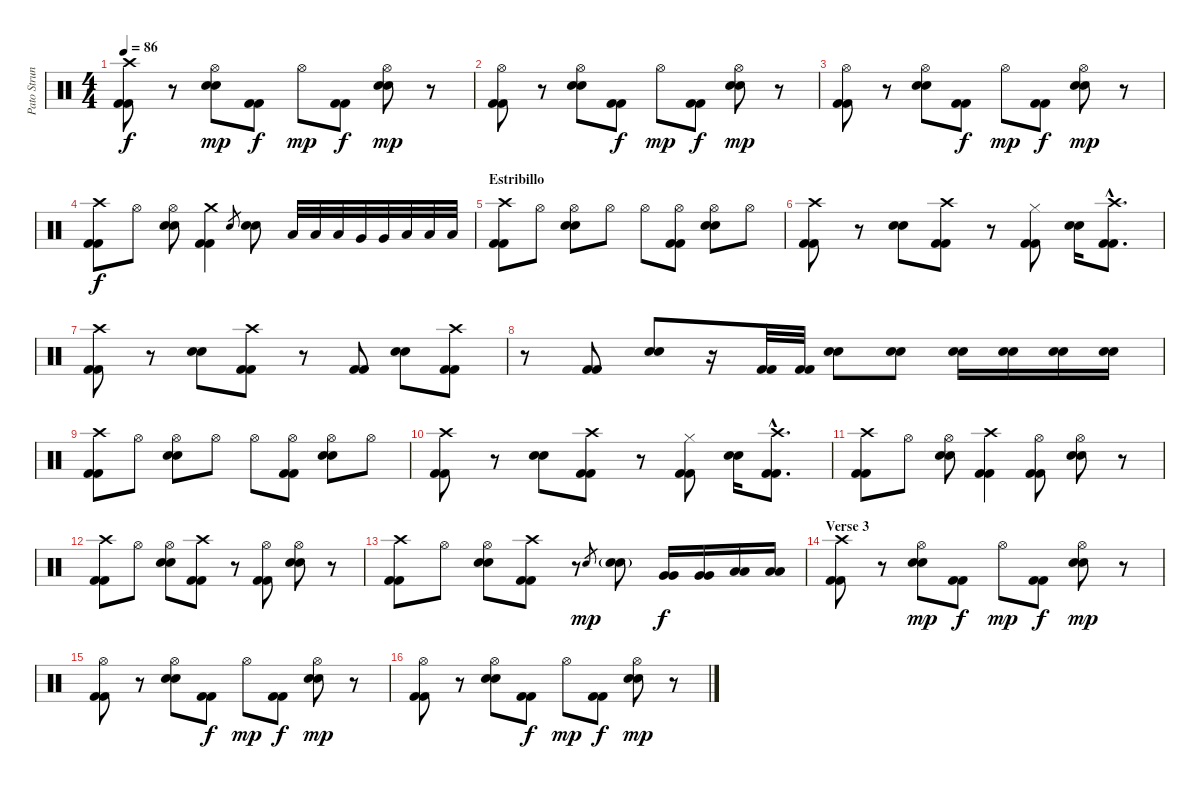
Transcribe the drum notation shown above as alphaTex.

\track ("Pato Strunz (Bateria)" "Pato Strun") {instrument percussion}
\staff {score}
\articulation defaults
\ts (4 4)
\tempo 86
\clef neutral
\ks c
("Crash high (hit)" "Kick (hit) 2" "Kick (hit) 2").8{dy f} r.8 ("Hi-Hat (open)" "Snare (hit) 2" "Snare (hit) 2").8{dy mp} ("Kick (hit) 2" "Kick (hit) 2").8{dy f} "Hi-Hat (open)".8{dy mp} ("Kick (hit) 2" "Kick (hit) 2").8{dy f} ("Hi-Hat (open)" "Snare (hit) 2" "Snare (hit) 2").8{dy mp} r.8 |
("Hi-Hat (open)" "Kick (hit) 2" "Kick (hit) 2").8 r.8 ("Hi-Hat (open)" "Snare (hit) 2" "Snare (hit) 2").8 ("Kick (hit) 2" "Kick (hit) 2").8{dy f} "Hi-Hat (open)".8{dy mp} ("Kick (hit) 2" "Kick (hit) 2").8{dy f} ("Hi-Hat (open)" "Snare (hit) 2" "Snare (hit) 2").8{dy mp} r.8 |
("Hi-Hat (open)" "Kick (hit) 2" "Kick (hit) 2").8 r.8 ("Hi-Hat (open)" "Snare (hit) 2" "Snare (hit) 2").8 ("Kick (hit) 2" "Kick (hit) 2").8{dy f} "Hi-Hat (open)".8{dy mp} ("Kick (hit) 2" "Kick (hit) 2").8{dy f} ("Hi-Hat (open)" "Snare (hit) 2" "Snare (hit) 2").8{dy mp} r.8 |
("Crash high (hit)" "Kick (hit) 2" "Kick (hit) 2").8{dy f} "Hi-Hat (open)".8 ("Hi-Hat (open)" "Snare (hit) 2" "Snare (hit) 2").8 ("Crash medium (hit)" "Kick (hit) 2" "Kick (hit) 2").4 "Snare (hit) 2".8{gr} ("Snare (hit) 2" "Snare (hit) 2").8 "Low Tom (hit)".32 "Low Tom (hit)".32 "Low Tom (hit)".32 "Very Low Tom (hit)".32 "Very Low Tom (hit)".32 "Low Floor Tom (hit)".32 "Low Floor Tom (hit)".32 "Low Floor Tom (hit)".32 |
\section ("" "Estribillo")
("Crash high (hit)" "Kick (hit) 2" "Kick (hit) 2").8 "Hi-Hat (open)".8 ("Hi-Hat (open)" "Snare (hit) 2" "Snare (hit) 2").8 "Hi-Hat (open)".8 "Hi-Hat (open)".8 ("Hi-Hat (open)" "Kick (hit) 2" "Kick (hit) 2").8 ("Hi-Hat (open)" "Snare (hit) 2" "Snare (hit) 2").8 "Hi-Hat (open)".8 |
("Crash high (hit)" "Kick (hit) 2" "Kick (hit) 2").8 r.8 ("Snare (hit) 2" "Snare (hit) 2").8 ("Crash high (hit)" "Kick (hit) 2" "Kick (hit) 2").8 r.8 ("Hi-Hat (closed)" "Kick (hit) 2" "Kick (hit) 2").8 ("Snare (hit) 2" "Snare (hit) 2").16 ("Crash high (hit)"{hac} "Kick (hit) 2"{hac} "Kick (hit) 2"{hac}).8{d} |
("Crash high (hit)" "Kick (hit) 2" "Kick (hit) 2").8 r.8 ("Snare (hit) 2" "Snare (hit) 2").8 ("Crash high (hit)" "Kick (hit) 2" "Kick (hit) 2").8 r.8 ("Kick (hit) 2" "Kick (hit) 2").8 ("Snare (hit) 2" "Snare (hit) 2").8 ("Crash high (hit)" "Kick (hit) 2" "Kick (hit) 2").8 |
r.8 ("Kick (hit) 2" "Kick (hit) 2").8 ("Snare (hit) 2" "Snare (hit) 2").8 r.16 ("Kick (hit) 2" "Kick (hit) 2").32 ("Kick (hit) 2" "Kick (hit) 2").32 ("Snare (hit) 2" "Snare (hit) 2").8 ("Snare (hit) 2" "Snare (hit) 2").8 ("Snare (hit) 2" "Snare (hit) 2").16 ("Snare (hit) 2" "Snare (hit) 2").16 ("Snare (hit) 2" "Snare (hit) 2").16 ("Snare (hit) 2" "Snare (hit) 2").16 |
("Crash high (hit)" "Kick (hit) 2" "Kick (hit) 2").8 "Hi-Hat (open)".8 ("Hi-Hat (open)" "Snare (hit) 2" "Snare (hit) 2").8 "Hi-Hat (open)".8 "Hi-Hat (open)".8 ("Hi-Hat (open)" "Kick (hit) 2" "Kick (hit) 2").8 ("Hi-Hat (open)" "Snare (hit) 2" "Snare (hit) 2").8 "Hi-Hat (open)".8 |
("Crash high (hit)" "Kick (hit) 2" "Kick (hit) 2").8 r.8 ("Snare (hit) 2" "Snare (hit) 2").8 ("Crash high (hit)" "Kick (hit) 2" "Kick (hit) 2").8 r.8 ("Hi-Hat (closed)" "Kick (hit) 2" "Kick (hit) 2").8 ("Snare (hit) 2" "Snare (hit) 2").16 ("Crash high (hit)"{hac} "Kick (hit) 2"{hac} "Kick (hit) 2"{hac}).8{d} |
("Crash high (hit)" "Kick (hit) 2" "Kick (hit) 2").8 "Hi-Hat (open)".8 ("Hi-Hat (open)" "Snare (hit) 2" "Snare (hit) 2").8 ("Crash high (hit)" "Kick (hit) 2" "Kick (hit) 2").4 ("Hi-Hat (open)" "Kick (hit) 2" "Kick (hit) 2").8 ("Hi-Hat (open)" "Snare (hit) 2" "Snare (hit) 2").8 r.8 |
("Crash high (hit)" "Kick (hit) 2" "Kick (hit) 2").8 "Hi-Hat (open)".8 ("Hi-Hat (open)" "Snare (hit) 2" "Snare (hit) 2").8 ("Crash high (hit)" "Kick (hit) 2" "Kick (hit) 2").8 r.8 ("Hi-Hat (open)" "Kick (hit) 2" "Kick (hit) 2").8 ("Hi-Hat (open)" "Snare (hit) 2" "Snare (hit) 2").8 r.8 |
("Crash high (hit)" "Kick (hit) 2" "Kick (hit) 2").8 "Hi-Hat (open)".8 ("Hi-Hat (open)" "Snare (hit) 2" "Snare (hit) 2").8 ("Crash high (hit)" "Kick (hit) 2" "Kick (hit) 2").8 r.8 "Snare (hit) 2".8{gr dy mp} ("Snare (hit) 2"{g} "Snare (hit) 2").8 ("Very Low Tom (hit)" "Very Low Tom (hit)").16{dy f} ("Very Low Tom (hit)" "Very Low Tom (hit)").16 ("Low Floor Tom (hit)" "Low Floor Tom (hit)").16 ("Low Floor Tom (hit)" "Low Floor Tom (hit)").16 |
\section ("" "Verse 3")
("Crash high (hit)" "Kick (hit) 2" "Kick (hit) 2").8 r.8 ("Hi-Hat (open)" "Snare (hit) 2" "Snare (hit) 2").8{dy mp} ("Kick (hit) 2" "Kick (hit) 2").8{dy f} "Hi-Hat (open)".8{dy mp} ("Kick (hit) 2" "Kick (hit) 2").8{dy f} ("Hi-Hat (open)" "Snare (hit) 2" "Snare (hit) 2").8{dy mp} r.8 |
("Hi-Hat (open)" "Kick (hit) 2" "Kick (hit) 2").8 r.8 ("Hi-Hat (open)" "Snare (hit) 2" "Snare (hit) 2").8 ("Kick (hit) 2" "Kick (hit) 2").8{dy f} "Hi-Hat (open)".8{dy mp} ("Kick (hit) 2" "Kick (hit) 2").8{dy f} ("Hi-Hat (open)" "Snare (hit) 2" "Snare (hit) 2").8{dy mp} r.8 |
("Hi-Hat (open)" "Kick (hit) 2" "Kick (hit) 2").8 r.8 ("Hi-Hat (open)" "Snare (hit) 2" "Snare (hit) 2").8 ("Kick (hit) 2" "Kick (hit) 2").8{dy f} "Hi-Hat (open)".8{dy mp} ("Kick (hit) 2" "Kick (hit) 2").8{dy f} ("Hi-Hat (open)" "Snare (hit) 2" "Snare (hit) 2").8{dy mp} r.8
